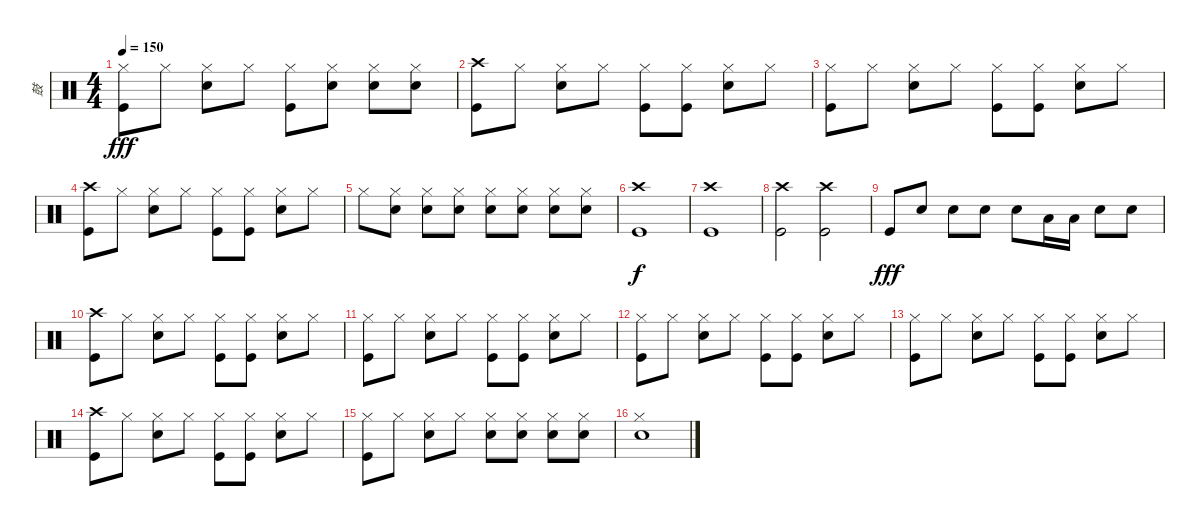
\track ("鼓" "鼓") {instrument percussion}
\staff {score}
\articulation defaults
\ts (4 4)
\tempo 150
\clef neutral
\ks c
("Hi-Hat (closed)" "Kick (hit)").8{dy fff} "Hi-Hat (closed)".8 ("Hi-Hat (closed)" "Electric Snare (hit)").8 "Hi-Hat (closed)".8 ("Hi-Hat (closed)" "Kick (hit)").8 ("Hi-Hat (closed)" "Electric Snare (hit)").8 ("Hi-Hat (closed)" "Electric Snare (hit)").8 ("Hi-Hat (closed)" "Electric Snare (hit)").8 |
("Crash high (hit)" "Kick (hit)").8 "Hi-Hat (closed)".8 ("Hi-Hat (closed)" "Electric Snare (hit)").8 "Hi-Hat (closed)".8 ("Hi-Hat (closed)" "Kick (hit)").8 ("Hi-Hat (closed)" "Kick (hit)").8 ("Hi-Hat (closed)" "Electric Snare (hit)").8 "Hi-Hat (closed)".8 |
("Hi-Hat (closed)" "Kick (hit)").8 "Hi-Hat (closed)".8 ("Hi-Hat (closed)" "Electric Snare (hit)").8 "Hi-Hat (closed)".8 ("Hi-Hat (closed)" "Kick (hit)").8 ("Hi-Hat (closed)" "Kick (hit)").8 ("Hi-Hat (closed)" "Electric Snare (hit)").8 "Hi-Hat (closed)".8 |
("Crash high (hit)" "Kick (hit)").8 "Hi-Hat (closed)".8 ("Hi-Hat (closed)" "Electric Snare (hit)").8 "Hi-Hat (closed)".8 ("Hi-Hat (closed)" "Kick (hit)").8 ("Hi-Hat (closed)" "Kick (hit)").8 ("Hi-Hat (closed)" "Electric Snare (hit)").8 "Hi-Hat (closed)".8 |
"Hi-Hat (closed)".8 ("Hi-Hat (closed)" "Electric Snare (hit)").8 ("Hi-Hat (closed)" "Electric Snare (hit)").8 ("Hi-Hat (closed)" "Electric Snare (hit)").8 ("Hi-Hat (closed)" "Electric Snare (hit)").8 ("Hi-Hat (closed)" "Electric Snare (hit)").8 ("Hi-Hat (closed)" "Electric Snare (hit)").8 ("Hi-Hat (closed)" "Electric Snare (hit)").8 |
("Crash high (hit)" "Kick (hit)").1{dy f} |
("Crash high (hit)" "Kick (hit)").1 |
("Crash high (hit)" "Kick (hit)").2 ("Crash high (hit)" "Kick (hit)").2 |
"Kick (hit)".8{dy fff} "Electric Snare (hit)".8 "Electric Snare (hit)".8 "Electric Snare (hit)".8 "Electric Snare (hit)".8 "Low Tom (hit)".16 "Low Tom (hit)".16 "Electric Snare (hit)".8 "Electric Snare (hit)".8 |
("Crash high (hit)" "Kick (hit)").8 "Hi-Hat (closed)".8 ("Hi-Hat (closed)" "Electric Snare (hit)").8 "Hi-Hat (closed)".8 ("Hi-Hat (closed)" "Kick (hit)").8 ("Hi-Hat (closed)" "Kick (hit)").8 ("Hi-Hat (closed)" "Electric Snare (hit)").8 "Hi-Hat (closed)".8 |
("Hi-Hat (closed)" "Kick (hit)").8 "Hi-Hat (closed)".8 ("Hi-Hat (closed)" "Electric Snare (hit)").8 "Hi-Hat (closed)".8 ("Hi-Hat (closed)" "Kick (hit)").8 ("Hi-Hat (closed)" "Kick (hit)").8 ("Hi-Hat (closed)" "Electric Snare (hit)").8 "Hi-Hat (closed)".8 |
("Hi-Hat (closed)" "Kick (hit)").8 "Hi-Hat (closed)".8 ("Hi-Hat (closed)" "Electric Snare (hit)").8 "Hi-Hat (closed)".8 ("Hi-Hat (closed)" "Kick (hit)").8 ("Hi-Hat (closed)" "Kick (hit)").8 ("Hi-Hat (closed)" "Electric Snare (hit)").8 "Hi-Hat (closed)".8 |
("Hi-Hat (closed)" "Kick (hit)").8 "Hi-Hat (closed)".8 ("Hi-Hat (closed)" "Electric Snare (hit)").8 "Hi-Hat (closed)".8 ("Hi-Hat (closed)" "Kick (hit)").8 ("Hi-Hat (closed)" "Kick (hit)").8 ("Hi-Hat (closed)" "Electric Snare (hit)").8 "Hi-Hat (closed)".8 |
("Crash high (hit)" "Kick (hit)").8 "Hi-Hat (closed)".8 ("Hi-Hat (closed)" "Electric Snare (hit)").8 "Hi-Hat (closed)".8 ("Hi-Hat (closed)" "Kick (hit)").8 ("Hi-Hat (closed)" "Kick (hit)").8 ("Hi-Hat (closed)" "Electric Snare (hit)").8 "Hi-Hat (closed)".8 |
("Hi-Hat (closed)" "Kick (hit)").8 "Hi-Hat (closed)".8 ("Hi-Hat (closed)" "Electric Snare (hit)").8 "Hi-Hat (closed)".8 ("Hi-Hat (closed)" "Electric Snare (hit)").8 ("Hi-Hat (closed)" "Electric Snare (hit)").8 ("Hi-Hat (closed)" "Electric Snare (hit)").8 ("Hi-Hat (closed)" "Electric Snare (hit)").8 |
("Hi-Hat (closed)" "Electric Snare (hit)").1
